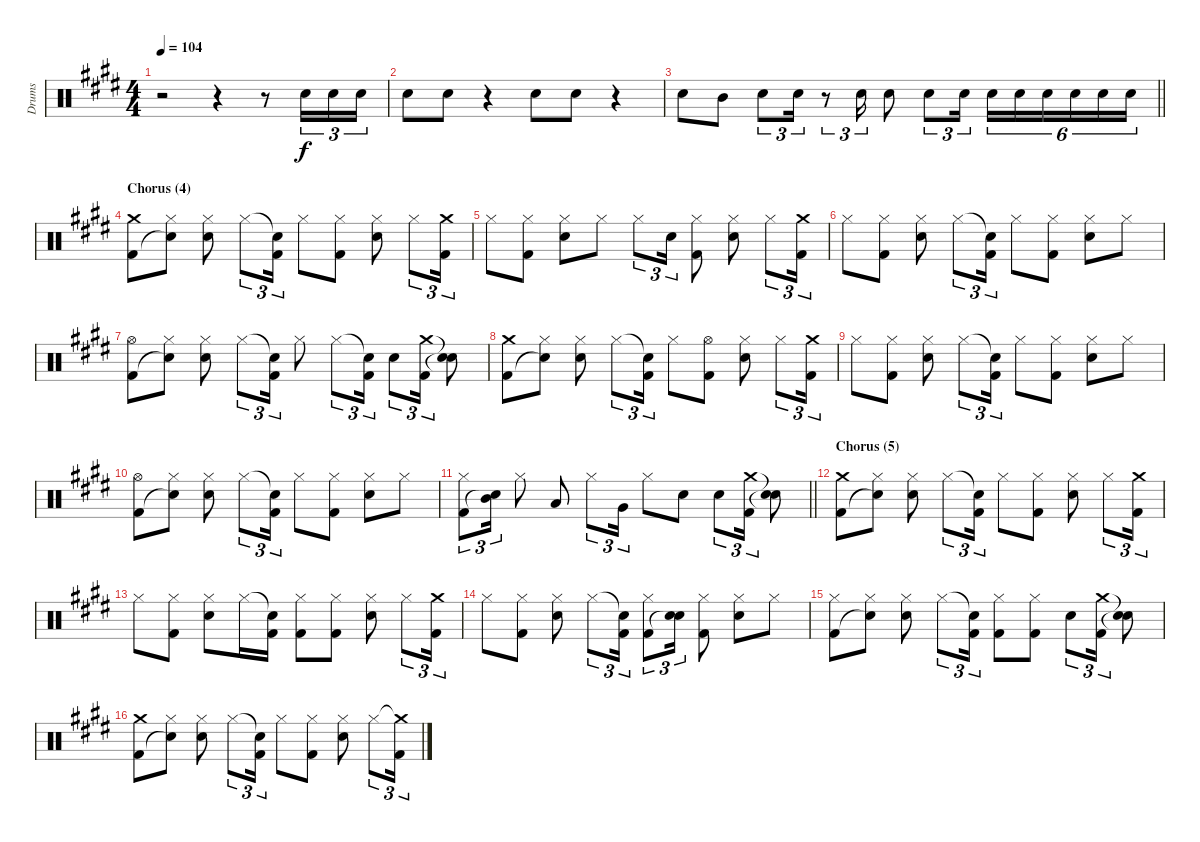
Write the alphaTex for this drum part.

\track ("Drums" "Drums") {instrument percussion}
\staff {score}
\articulation defaults
\ts (4 4)
\tempo 104
\clef neutral
\ks c#minor
r.2{dy f} r.4 r.8 "Electric Snare (hit)".16{tu (3 2)} "Electric Snare (hit)".16{tu (3 2)} "Electric Snare (hit)".16{tu (3 2)} |
"Electric Snare (hit)".8 "Electric Snare (hit)".8 r.4 "Electric Snare (hit)".8 "Electric Snare (hit)".8 r.4 |
\barLineRight lightlight "Electric Snare (hit)".8 "Mid Tom (hit)".8 "Electric Snare (hit)".8{tu (3 2)} "Electric Snare (hit)".16{tu (3 2)}
r.8{tu (3 2)} "Electric Snare (hit)".16{tu (3 2)} "Electric Snare (hit)".8 "Electric Snare (hit)".8{tu (3 2)} "Electric Snare (hit)".16{tu (3 2)} "Electric Snare (hit)".16{tu (6 4)} "Electric Snare (hit)".16{tu (6 4)} "Electric Snare (hit)".16{tu (6 4)} "Electric Snare (hit)".16{tu (6 4)} "Electric Snare (hit)".16{tu (6 4)} "Electric Snare (hit)".16{tu (6 4)} |
\section ("" "Chorus (4)")
("Crash medium (hit)" "Kick (hit) 2").8 ("Hi-Hat (closed)" "Snare (hit)"{t}).8 ("Hi-Hat (closed)" "Electric Snare (hit)").8 "Hi-Hat (closed)".8{tu (3 2)} ("Snare (hit)"{t} "Kick (hit) 2").16{tu (3 2)} "Hi-Hat (closed)".8 ("Hi-Hat (closed)" "Kick (hit) 2").8 ("Hi-Hat (closed)" "Electric Snare (hit)").8 "Hi-Hat (closed)".8{tu (3 2)} ("Crash medium (hit)" "Kick (hit) 2").16{tu (3 2)} |
"Hi-Hat (closed)".8 ("Hi-Hat (closed)" "Kick (hit) 2").8 ("Hi-Hat (closed)" "Electric Snare (hit)").8 "Hi-Hat (closed)".8 "Hi-Hat (closed)".8{tu (3 2)} "Electric Snare (hit)".16{tu (3 2)} ("Hi-Hat (closed)" "Kick (hit) 2").8 ("Hi-Hat (closed)" "Electric Snare (hit)").8 "Hi-Hat (closed)".8{tu (3 2)} ("Crash medium (hit)" "Kick (hit) 2").16{tu (3 2)} |
"Hi-Hat (closed)".8 ("Hi-Hat (closed)" "Kick (hit) 2").8 ("Hi-Hat (closed)" "Electric Snare (hit)").8 "Hi-Hat (closed)".8{tu (3 2)} ("Snare (hit)"{t} "Kick (hit) 2").16{tu (3 2)} "Hi-Hat (closed)".8 ("Hi-Hat (closed)" "Kick (hit) 2").8 ("Hi-Hat (closed)" "Electric Snare (hit)").8 "Hi-Hat (closed)".8 |
("Hi-Hat (open)" "Kick (hit) 2").8 ("Hi-Hat (closed)" "Snare (hit)"{t}).8 ("Hi-Hat (closed)" "Electric Snare (hit)").8 "Hi-Hat (closed)".8{tu (3 2)} ("Snare (hit)"{t} "Kick (hit) 2").16{tu (3 2)} "Hi-Hat (closed)".8 "Hi-Hat (closed)".8{tu (3 2)} ("Snare (hit)"{t} "Kick (hit) 2").16{tu (3 2)} "Electric Snare (hit)".8{tu (3 2)} ("Crash medium (hit)" "Kick (hit) 2").16{tu (3 2)} ("Snare (hit)"{t} "Snare (hit)"{t}).8 |
("Crash medium (hit)" "Kick (hit) 2").8 ("Hi-Hat (closed)" "Snare (hit)"{t}).8 ("Hi-Hat (closed)" "Electric Snare (hit)").8 "Hi-Hat (closed)".8{tu (3 2)} ("Snare (hit)"{t} "Kick (hit) 2").16{tu (3 2)} "Hi-Hat (closed)".8 ("Hi-Hat (open)" "Kick (hit) 2").8 ("Hi-Hat (closed)" "Electric Snare (hit)").8 "Hi-Hat (closed)".8{tu (3 2)} ("Crash medium (hit)" "Kick (hit) 2").16{tu (3 2)} |
"Hi-Hat (closed)".8 ("Hi-Hat (closed)" "Kick (hit) 2").8 ("Hi-Hat (closed)" "Electric Snare (hit)").8 "Hi-Hat (closed)".8{tu (3 2)} ("Snare (hit)"{t} "Kick (hit) 2").16{tu (3 2)} "Hi-Hat (closed)".8 ("Hi-Hat (closed)" "Kick (hit) 2").8 ("Hi-Hat (closed)" "Electric Snare (hit)").8 "Hi-Hat (closed)".8 |
("Hi-Hat (open)" "Kick (hit) 2").8 ("Hi-Hat (closed)" "Snare (hit)"{t}).8 ("Hi-Hat (closed)" "Electric Snare (hit)").8 "Hi-Hat (closed)".8{tu (3 2)} ("Snare (hit)"{t} "Kick (hit) 2").16{tu (3 2)} "Hi-Hat (closed)".8 ("Hi-Hat (closed)" "Kick (hit) 2").8 ("Hi-Hat (closed)" "Electric Snare (hit)").8 "Hi-Hat (closed)".8 |
\barLineRight lightlight
("Hi-Hat (closed)" "Kick (hit) 2").8{tu (3 2)} ("Mid Tom (hit)" "Snare (hit)"{t}).16{tu (3 2)} "Hi-Hat (closed)".8 "Low Tom (hit)".8 "Hi-Hat (closed)".8{tu (3 2)} "Very Low Tom (hit)".16{tu (3 2)} "Hi-Hat (closed)".8 "Electric Snare (hit)".8 "Electric Snare (hit)".8{tu (3 2)} ("Crash medium (hit)" "Kick (hit) 2").16{tu (3 2)} ("Snare (hit)"{t} "Snare (hit)"{t}).8 |
\section ("" "Chorus (5)")
("Crash medium (hit)" "Kick (hit) 2").8 ("Hi-Hat (closed)" "Snare (hit)"{t}).8 ("Hi-Hat (closed)" "Electric Snare (hit)").8 "Hi-Hat (closed)".8{tu (3 2)} ("Snare (hit)"{t} "Kick (hit) 2").16{tu (3 2)} "Hi-Hat (closed)".8 ("Hi-Hat (closed)" "Kick (hit) 2").8 ("Hi-Hat (closed)" "Electric Snare (hit)").8 "Hi-Hat (closed)".8{tu (3 2)} ("Crash medium (hit)" "Kick (hit) 2").16{tu (3 2)} |
"Hi-Hat (closed)".8 ("Hi-Hat (closed)" "Kick (hit) 2").8 ("Hi-Hat (closed)" "Electric Snare (hit)").8 "Hi-Hat (closed)".16 ("Snare (hit)"{t} "Kick (hit) 2").16 ("Hi-Hat (closed)" "Kick (hit) 2").8 ("Hi-Hat (closed)" "Kick (hit) 2").8 ("Hi-Hat (closed)" "Electric Snare (hit)").8 "Hi-Hat (closed)".8{tu (3 2)} ("Crash medium (hit)" "Kick (hit) 2").16{tu (3 2)} |
"Hi-Hat (closed)".8 ("Hi-Hat (closed)" "Kick (hit) 2").8 ("Hi-Hat (closed)" "Electric Snare (hit)").8 "Hi-Hat (closed)".8{tu (3 2)} ("Snare (hit)"{t} "Kick (hit) 2").16{tu (3 2)} ("Hi-Hat (closed)" "Kick (hit) 2").8{tu (3 2)} ("Electric Snare (hit)" "Snare (hit)"{t}).16{tu (3 2)} ("Hi-Hat (closed)" "Kick (hit) 2").8 ("Hi-Hat (closed)" "Electric Snare (hit)").8 "Hi-Hat (closed)".8 |
("Hi-Hat (closed)" "Kick (hit) 2").8 ("Hi-Hat (closed)" "Snare (hit)"{t}).8 ("Hi-Hat (closed)" "Electric Snare (hit)").8 "Hi-Hat (closed)".8{tu (3 2)} ("Snare (hit)"{t} "Kick (hit) 2").16{tu (3 2)} ("Hi-Hat (closed)" "Kick (hit) 2").8 ("Hi-Hat (closed)" "Kick (hit) 2").8 "Electric Snare (hit)".8{tu (3 2)} ("Crash medium (hit)" "Kick (hit) 2").16{tu (3 2)} ("Snare (hit)"{t} "Snare (hit)"{t}).8 |
("Crash medium (hit)" "Kick (hit) 2").8 ("Hi-Hat (closed)" "Snare (hit)"{t}).8 ("Hi-Hat (closed)" "Electric Snare (hit)").8 "Hi-Hat (closed)".8{tu (3 2)} ("Snare (hit)"{t} "Kick (hit) 2").16{tu (3 2)} "Hi-Hat (closed)".8 ("Hi-Hat (closed)" "Kick (hit) 2").8 ("Hi-Hat (closed)" "Electric Snare (hit)").8 "Hi-Hat (closed)".8{tu (3 2)} ("Crash medium (hit)"{t} "Kick (hit) 2").16{tu (3 2)}
